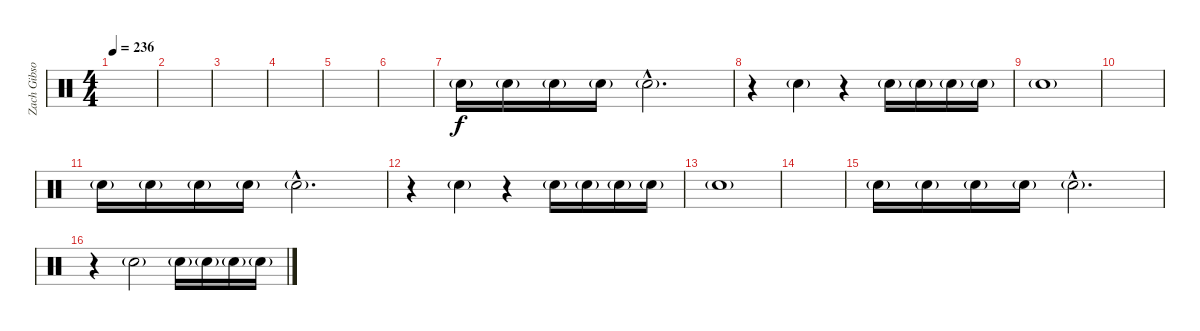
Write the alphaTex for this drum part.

\track ("Zach Gibson (Drums)" "Zach Gibso") {instrument percussion}
\staff {score}
\articulation defaults
\ts (4 4)
\tempo 236
\clef neutral
\ks c
|
|
|
|
|
|
"Snare (hit) 2"{g}.16 "Snare (hit) 2"{g}.16 "Snare (hit) 2"{g}.16 "Snare (hit) 2"{g}.16 "Snare (hit) 2"{g hac}.2{d} |
r.4 "Snare (hit) 2"{g}.4 r.4 "Snare (hit) 2"{g}.16 "Snare (hit) 2"{g}.16 "Snare (hit) 2"{g}.16 "Snare (hit) 2"{g}.16 |
"Snare (hit) 2"{g}.1 |
|
"Snare (hit) 2"{g}.16 "Snare (hit) 2"{g}.16 "Snare (hit) 2"{g}.16 "Snare (hit) 2"{g}.16 "Snare (hit) 2"{g hac}.2{d} |
r.4 "Snare (hit) 2"{g}.4 r.4 "Snare (hit) 2"{g}.16 "Snare (hit) 2"{g}.16 "Snare (hit) 2"{g}.16 "Snare (hit) 2"{g}.16 |
"Snare (hit) 2"{g}.1 |
|
"Snare (hit) 2"{g}.16 "Snare (hit) 2"{g}.16 "Snare (hit) 2"{g}.16 "Snare (hit) 2"{g}.16 "Snare (hit) 2"{g hac}.2{d} |
r.4 "Snare (hit) 2"{g}.2 "Snare (hit) 2"{g}.16 "Snare (hit) 2"{g}.16 "Snare (hit) 2"{g}.16 "Snare (hit) 2"{g}.16
